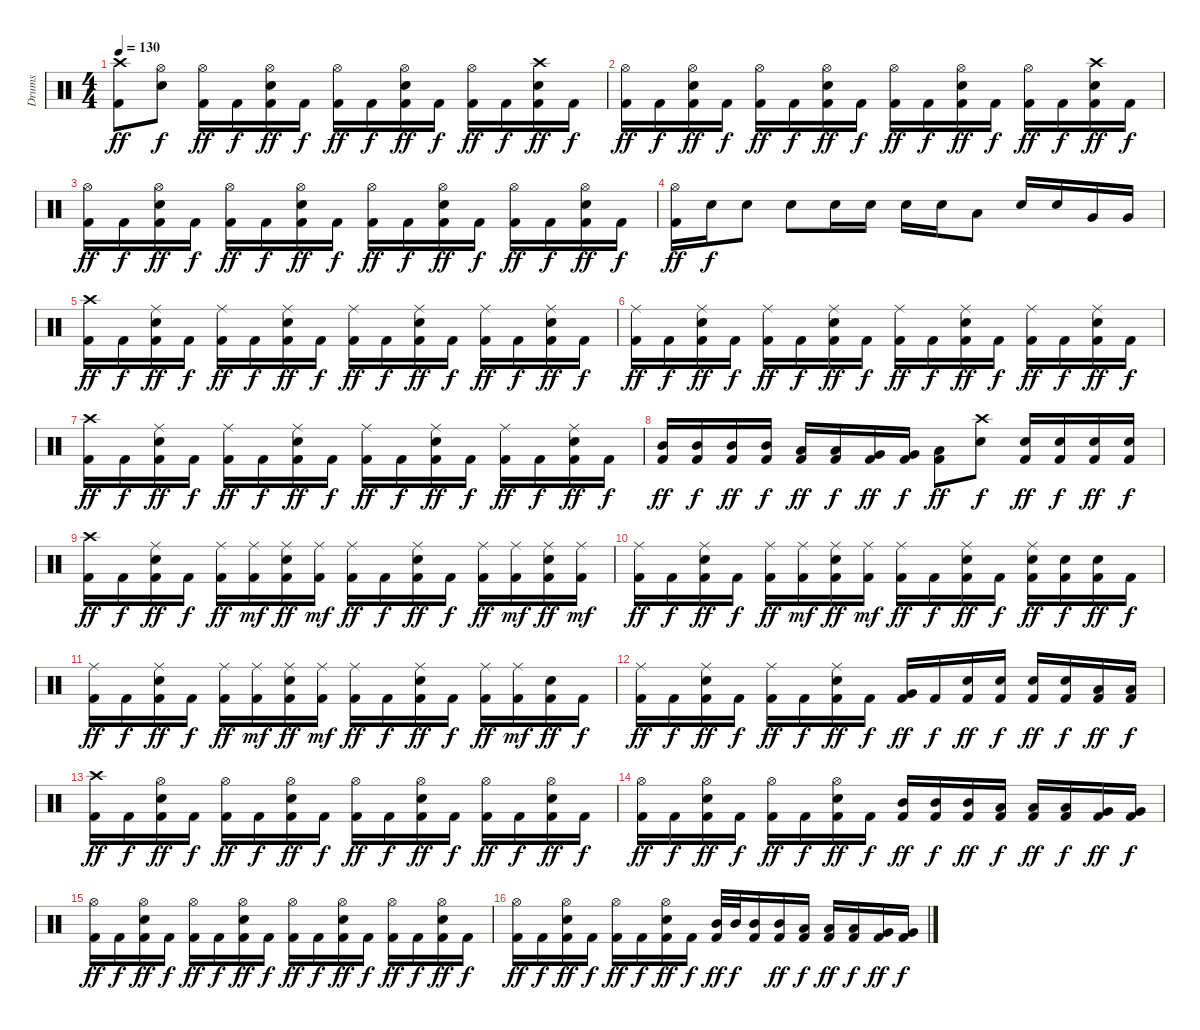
\track ("Drums" "Drums") {instrument percussion}
\staff {score}
\articulation defaults
\ts (4 4)
\tempo 130
\clef neutral
\ks c
("Crash high (hit)" "Kick (hit) 2").8{dy ff} ("Hi-Hat (open)" "Electric Snare (hit)").8{dy f} ("Hi-Hat (open)" "Kick (hit) 2").16{dy ff} "Kick (hit) 2".16{dy f} ("Hi-Hat (open)" "Electric Snare (hit)" "Kick (hit) 2").16{dy ff} "Kick (hit) 2".16{dy f} ("Hi-Hat (open)" "Kick (hit) 2").16{dy ff} "Kick (hit) 2".16{dy f} ("Hi-Hat (open)" "Electric Snare (hit)" "Kick (hit) 2").16{dy ff} "Kick (hit) 2".16{dy f} ("Hi-Hat (open)" "Kick (hit) 2").16{dy ff} "Kick (hit) 2".16{dy f} ("Crash high (hit)" "Electric Snare (hit)" "Kick (hit) 2").16{dy ff} "Kick (hit) 2".16{dy f} |
("Hi-Hat (open)" "Kick (hit) 2").16{dy ff} "Kick (hit) 2".16{dy f} ("Hi-Hat (open)" "Electric Snare (hit)" "Kick (hit) 2").16{dy ff} "Kick (hit) 2".16{dy f} ("Hi-Hat (open)" "Kick (hit) 2").16{dy ff} "Kick (hit) 2".16{dy f} ("Hi-Hat (open)" "Electric Snare (hit)" "Kick (hit) 2").16{dy ff} "Kick (hit) 2".16{dy f} ("Hi-Hat (open)" "Kick (hit) 2").16{dy ff} "Kick (hit) 2".16{dy f} ("Hi-Hat (open)" "Electric Snare (hit)" "Kick (hit) 2").16{dy ff} "Kick (hit) 2".16{dy f} ("Hi-Hat (open)" "Kick (hit) 2").16{dy ff} "Kick (hit) 2".16{dy f} ("Crash high (hit)" "Electric Snare (hit)" "Kick (hit) 2").16{dy ff} "Kick (hit) 2".16{dy f} |
("Hi-Hat (open)" "Kick (hit) 2").16{dy ff} "Kick (hit) 2".16{dy f} ("Hi-Hat (open)" "Electric Snare (hit)" "Kick (hit) 2").16{dy ff} "Kick (hit) 2".16{dy f} ("Hi-Hat (open)" "Kick (hit) 2").16{dy ff} "Kick (hit) 2".16{dy f} ("Hi-Hat (open)" "Electric Snare (hit)" "Kick (hit) 2").16{dy ff} "Kick (hit) 2".16{dy f} ("Hi-Hat (open)" "Kick (hit) 2").16{dy ff} "Kick (hit) 2".16{dy f} ("Hi-Hat (open)" "Electric Snare (hit)" "Kick (hit) 2").16{dy ff} "Kick (hit) 2".16{dy f} ("Hi-Hat (open)" "Kick (hit) 2").16{dy ff} "Kick (hit) 2".16{dy f} ("Hi-Hat (open)" "Electric Snare (hit)" "Kick (hit) 2").16{dy ff} "Kick (hit) 2".16{dy f} |
("Hi-Hat (open)" "Kick (hit) 2").16{dy ff} "Electric Snare (hit)".16{dy f} "Electric Snare (hit)".8 "Electric Snare (hit)".8 "Electric Snare (hit)".16 "Electric Snare (hit)".16 "Electric Snare (hit)".16 "Electric Snare (hit)".16 "Low Tom (hit)".8 "Electric Snare (hit)".16 "Electric Snare (hit)".16 "Very Low Tom (hit)".16 "Very Low Tom (hit)".16 |
("Crash high (hit)" "Kick (hit) 2").16{dy ff} "Kick (hit) 2".16{dy f} ("Ride (middle)" "Electric Snare (hit)" "Kick (hit) 2").16{dy ff} "Kick (hit) 2".16{dy f} ("Ride (middle)" "Kick (hit) 2").16{dy ff} "Kick (hit) 2".16{dy f} ("Ride (middle)" "Electric Snare (hit)" "Kick (hit) 2").16{dy ff} "Kick (hit) 2".16{dy f} ("Ride (middle)" "Kick (hit) 2").16{dy ff} "Kick (hit) 2".16{dy f} ("Ride (middle)" "Electric Snare (hit)" "Kick (hit) 2").16{dy ff} "Kick (hit) 2".16{dy f} ("Ride (middle)" "Kick (hit) 2").16{dy ff} "Kick (hit) 2".16{dy f} ("Ride (middle)" "Electric Snare (hit)" "Kick (hit) 2").16{dy ff} "Kick (hit) 2".16{dy f} |
("Ride (middle)" "Kick (hit) 2").16{dy ff} "Kick (hit) 2".16{dy f} ("Ride (middle)" "Electric Snare (hit)" "Kick (hit) 2").16{dy ff} "Kick (hit) 2".16{dy f} ("Ride (middle)" "Kick (hit) 2").16{dy ff} "Kick (hit) 2".16{dy f} ("Ride (middle)" "Electric Snare (hit)" "Kick (hit) 2").16{dy ff} "Kick (hit) 2".16{dy f} ("Ride (middle)" "Kick (hit) 2").16{dy ff} "Kick (hit) 2".16{dy f} ("Ride (middle)" "Electric Snare (hit)" "Kick (hit) 2").16{dy ff} "Kick (hit) 2".16{dy f} ("Ride (middle)" "Kick (hit) 2").16{dy ff} "Kick (hit) 2".16{dy f} ("Ride (middle)" "Electric Snare (hit)" "Kick (hit) 2").16{dy ff} "Kick (hit) 2".16{dy f} |
("Crash high (hit)" "Kick (hit) 2").16{dy ff} "Kick (hit) 2".16{dy f} ("Ride (middle)" "Electric Snare (hit)" "Kick (hit) 2").16{dy ff} "Kick (hit) 2".16{dy f} ("Ride (middle)" "Kick (hit) 2").16{dy ff} "Kick (hit) 2".16{dy f} ("Ride (middle)" "Electric Snare (hit)" "Kick (hit) 2").16{dy ff} "Kick (hit) 2".16{dy f} ("Ride (middle)" "Kick (hit) 2").16{dy ff} "Kick (hit) 2".16{dy f} ("Ride (middle)" "Electric Snare (hit)" "Kick (hit) 2").16{dy ff} "Kick (hit) 2".16{dy f} ("Ride (middle)" "Kick (hit) 2").16{dy ff} "Kick (hit) 2".16{dy f} ("Ride (middle)" "Electric Snare (hit)" "Kick (hit) 2").16{dy ff} "Kick (hit) 2".16{dy f} |
("Mid Tom (hit)" "Kick (hit) 2").16{dy ff} ("Mid Tom (hit)" "Kick (hit) 2").16{dy f} ("Mid Tom (hit)" "Kick (hit) 2").16{dy ff} ("Mid Tom (hit)" "Kick (hit) 2").16{dy f} ("Low Tom (hit)" "Kick (hit) 2").16{dy ff} ("Low Tom (hit)" "Kick (hit) 2").16{dy f} ("Very Low Tom (hit)" "Kick (hit) 2").16{dy ff} ("Very Low Tom (hit)" "Kick (hit) 2").16{dy f} ("Low Floor Tom (hit)" "Kick (hit) 2").8{dy ff} ("Crash high (hit)" "Electric Snare (hit)").8{dy f} ("Electric Snare (hit)" "Kick (hit) 2").16{dy ff} ("Electric Snare (hit)" "Kick (hit) 2").16{dy f} ("Electric Snare (hit)" "Kick (hit) 2").16{dy ff} ("Electric Snare (hit)" "Kick (hit) 2").16{dy f} |
("Crash high (hit)" "Kick (hit) 2").16{dy ff} "Kick (hit) 2".16{dy f} ("Ride (middle)" "Electric Snare (hit)" "Kick (hit) 2").16{dy ff} "Kick (hit) 2".16{dy f} ("Ride (middle)" "Kick (hit) 2").16{dy ff} ("Ride (middle)" "Kick (hit) 2").16{dy mf} ("Ride (middle)" "Electric Snare (hit)" "Kick (hit) 2").16{dy ff} ("Ride (middle)" "Kick (hit) 2").16{dy mf} ("Ride (middle)" "Kick (hit) 2").16{dy ff} "Kick (hit) 2".16{dy f} ("Ride (middle)" "Electric Snare (hit)" "Kick (hit) 2").16{dy ff} "Kick (hit) 2".16{dy f} ("Ride (middle)" "Kick (hit) 2").16{dy ff} ("Ride (middle)" "Kick (hit) 2").16{dy mf} ("Ride (middle)" "Electric Snare (hit)" "Kick (hit) 2").16{dy ff} ("Ride (middle)" "Kick (hit) 2").16{dy mf} |
("Ride (middle)" "Kick (hit) 2").16{dy ff} "Kick (hit) 2".16{dy f} ("Ride (middle)" "Electric Snare (hit)" "Kick (hit) 2").16{dy ff} "Kick (hit) 2".16{dy f} ("Ride (middle)" "Kick (hit) 2").16{dy ff} ("Ride (middle)" "Kick (hit) 2").16{dy mf} ("Ride (middle)" "Electric Snare (hit)" "Kick (hit) 2").16{dy ff} ("Ride (middle)" "Kick (hit) 2").16{dy mf} ("Ride (middle)" "Kick (hit) 2").16{dy ff} "Kick (hit) 2".16{dy f} ("Ride (middle)" "Electric Snare (hit)" "Kick (hit) 2").16{dy ff} "Kick (hit) 2".16{dy f} ("Ride (middle)" "Electric Snare (hit)" "Kick (hit) 2").16{dy ff} ("Electric Snare (hit)" "Kick (hit) 2").16{dy f} ("Electric Snare (hit)" "Kick (hit) 2").16{dy ff} "Kick (hit) 2".16{dy f} |
("Ride (middle)" "Kick (hit) 2").16{dy ff} "Kick (hit) 2".16{dy f} ("Ride (middle)" "Electric Snare (hit)" "Kick (hit) 2").16{dy ff} "Kick (hit) 2".16{dy f} ("Ride (middle)" "Kick (hit) 2").16{dy ff} ("Ride (middle)" "Kick (hit) 2").16{dy mf} ("Ride (middle)" "Electric Snare (hit)" "Kick (hit) 2").16{dy ff} ("Ride (middle)" "Kick (hit) 2").16{dy mf} ("Ride (middle)" "Kick (hit) 2").16{dy ff} "Kick (hit) 2".16{dy f} ("Ride (middle)" "Electric Snare (hit)" "Kick (hit) 2").16{dy ff} "Kick (hit) 2".16{dy f} ("Ride (middle)" "Kick (hit) 2").16{dy ff} ("Ride (middle)" "Kick (hit) 2").16{dy mf} ("Electric Snare (hit)" "Kick (hit) 2").16{dy ff} "Kick (hit) 2".16{dy f} |
("Ride (middle)" "Kick (hit) 2").16{dy ff} "Kick (hit) 2".16{dy f} ("Ride (middle)" "Electric Snare (hit)" "Kick (hit) 2").16{dy ff} "Kick (hit) 2".16{dy f} ("Ride (middle)" "Kick (hit) 2").16{dy ff} "Kick (hit) 2".16{dy f} ("Ride (middle)" "Electric Snare (hit)" "Kick (hit) 2").16{dy ff} "Kick (hit) 2".16{dy f} ("Very Low Tom (hit)" "Kick (hit) 2").16{dy ff} "Kick (hit) 2".16{dy f} ("Electric Snare (hit)" "Kick (hit) 2").16{dy ff} ("Electric Snare (hit)" "Kick (hit) 2").16{dy f} ("Electric Snare (hit)" "Kick (hit) 2").16{dy ff} ("Electric Snare (hit)" "Kick (hit) 2").16{dy f} ("Low Tom (hit)" "Kick (hit) 2").16{dy ff} ("Low Tom (hit)" "Kick (hit) 2").16{dy f} |
("Crash high (hit)" "Kick (hit) 2").16{dy ff} "Kick (hit) 2".16{dy f} ("Hi-Hat (open)" "Electric Snare (hit)" "Kick (hit) 2").16{dy ff} "Kick (hit) 2".16{dy f} ("Hi-Hat (open)" "Kick (hit) 2").16{dy ff} "Kick (hit) 2".16{dy f} ("Hi-Hat (open)" "Electric Snare (hit)" "Kick (hit) 2").16{dy ff} "Kick (hit) 2".16{dy f} ("Hi-Hat (open)" "Kick (hit) 2").16{dy ff} "Kick (hit) 2".16{dy f} ("Hi-Hat (open)" "Electric Snare (hit)" "Kick (hit) 2").16{dy ff} "Kick (hit) 2".16{dy f} ("Hi-Hat (open)" "Kick (hit) 2").16{dy ff} "Kick (hit) 2".16{dy f} ("Hi-Hat (open)" "Electric Snare (hit)" "Kick (hit) 2").16{dy ff} "Kick (hit) 2".16{dy f} |
("Hi-Hat (open)" "Kick (hit) 2").16{dy ff} "Kick (hit) 2".16{dy f} ("Hi-Hat (open)" "Electric Snare (hit)" "Kick (hit) 2").16{dy ff} "Kick (hit) 2".16{dy f} ("Hi-Hat (open)" "Kick (hit) 2").16{dy ff} "Kick (hit) 2".16{dy f} ("Hi-Hat (open)" "Electric Snare (hit)" "Kick (hit) 2").16{dy ff} "Kick (hit) 2".16{dy f} ("Mid Tom (hit)" "Kick (hit) 2").16{dy ff} ("Mid Tom (hit)" "Kick (hit) 2").16{dy f} ("Mid Tom (hit)" "Kick (hit) 2").16{dy ff} ("Low Tom (hit)" "Kick (hit) 2").16{dy f} ("Low Tom (hit)" "Kick (hit) 2").16{dy ff} ("Low Tom (hit)" "Kick (hit) 2").16{dy f} ("Very Low Tom (hit)" "Kick (hit) 2").16{dy ff} ("Very Low Tom (hit)" "Kick (hit) 2").16{dy f} |
("Hi-Hat (open)" "Kick (hit) 2").16{dy ff} "Kick (hit) 2".16{dy f} ("Hi-Hat (open)" "Electric Snare (hit)" "Kick (hit) 2").16{dy ff} "Kick (hit) 2".16{dy f} ("Hi-Hat (open)" "Kick (hit) 2").16{dy ff} "Kick (hit) 2".16{dy f} ("Hi-Hat (open)" "Electric Snare (hit)" "Kick (hit) 2").16{dy ff} "Kick (hit) 2".16{dy f} ("Hi-Hat (open)" "Kick (hit) 2").16{dy ff} "Kick (hit) 2".16{dy f} ("Hi-Hat (open)" "Electric Snare (hit)" "Kick (hit) 2").16{dy ff} "Kick (hit) 2".16{dy f} ("Hi-Hat (open)" "Kick (hit) 2").16{dy ff} "Kick (hit) 2".16{dy f} ("Hi-Hat (open)" "Electric Snare (hit)" "Kick (hit) 2").16{dy ff} "Kick (hit) 2".16{dy f} |
("Hi-Hat (open)" "Kick (hit) 2").16{dy ff} "Kick (hit) 2".16{dy f} ("Hi-Hat (open)" "Electric Snare (hit)" "Kick (hit) 2").16{dy ff} "Kick (hit) 2".16{dy f} ("Hi-Hat (open)" "Kick (hit) 2").16{dy ff} "Kick (hit) 2".16{dy f} ("Hi-Hat (open)" "Electric Snare (hit)" "Kick (hit) 2").16{dy ff} "Kick (hit) 2".16{dy f} ("Mid Tom (hit)" "Kick (hit) 2").32{dy ff} "Mid Tom (hit)".32{dy f} ("Mid Tom (hit)" "Kick (hit) 2").16 ("Mid Tom (hit)" "Kick (hit) 2").16{dy ff} ("Low Tom (hit)" "Kick (hit) 2").16{dy f} ("Low Tom (hit)" "Kick (hit) 2").16{dy ff} ("Low Tom (hit)" "Kick (hit) 2").16{dy f} ("Very Low Tom (hit)" "Kick (hit) 2").16{dy ff} ("Very Low Tom (hit)" "Kick (hit) 2").16{dy f}
